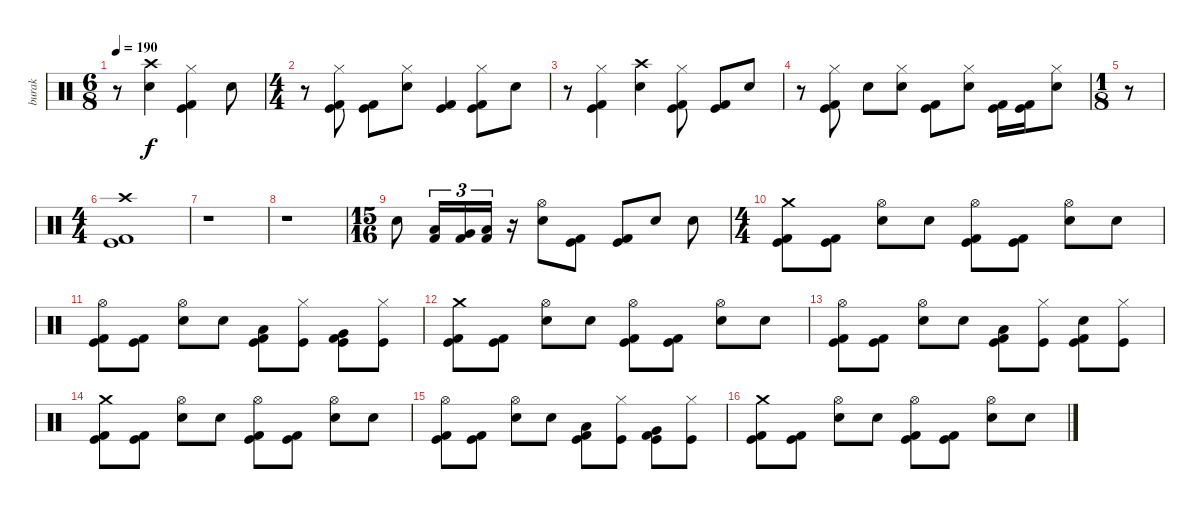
\track ("burak" "burak") {instrument percussion}
\staff {score}
\articulation defaults
\ts (6 8)
\tempo 190
\clef neutral
\ks c
r.8{dy f} ("Electric Snare (hit)" "Crash high (hit)").4 ("Hi-Hat (closed)" "Kick (hit)" "Kick (hit) 2").4 "Electric Snare (hit)".8 |
\ts (4 4)
r.8 ("Hi-Hat (closed)" "Kick (hit)" "Kick (hit) 2").8 ("Kick (hit)" "Kick (hit) 2").8 ("Electric Snare (hit)" "Hi-Hat (closed)").8 ("Kick (hit)" "Kick (hit) 2").4 ("Hi-Hat (closed)" "Kick (hit)" "Kick (hit) 2").8 "Electric Snare (hit)".8 |
r.8 ("Hi-Hat (closed)" "Kick (hit)" "Kick (hit) 2").4 ("Electric Snare (hit)" "Crash high (hit)").4 ("Hi-Hat (closed)" "Kick (hit)" "Kick (hit) 2").8 ("Kick (hit)" "Kick (hit) 2").8 "Electric Snare (hit)".8 |
r.8 ("Hi-Hat (closed)" "Kick (hit)" "Kick (hit) 2").8 "Electric Snare (hit)".8 ("Electric Snare (hit)" "Hi-Hat (closed)").8 ("Kick (hit)" "Kick (hit) 2").8 ("Electric Snare (hit)" "Hi-Hat (closed)").8 ("Kick (hit)" "Kick (hit) 2").16 ("Kick (hit)" "Kick (hit) 2").16 ("Hi-Hat (closed)" "Electric Snare (hit)").8 |
\ts (1 8)
r.8 |
\ts (4 4)
("Crash high (hit)" "Kick (hit)" "Kick (hit) 2").1 |
r.1 |
r.1 |
\ts (15 16)
"Electric Snare (hit)".8 ("Low Tom (hit)" "Kick (hit) 2").16{tu (3 2)} ("Very Low Tom (hit)" "Kick (hit) 2").16{tu (3 2)} ("Low Floor Tom (hit)" "Kick (hit) 2").16{tu (3 2)} r.16 ("Hi-Hat (open)" "Electric Snare (hit)").8 ("Kick (hit)" "Kick (hit) 2").8 ("Kick (hit)" "Kick (hit) 2").8 "Electric Snare (hit)".8 "Electric Snare (hit)".8 |
\ts (4 4)
("Crash medium (hit)" "Kick (hit)" "Kick (hit) 2").8 ("Kick (hit)" "Kick (hit) 2").8 ("Electric Snare (hit)" "Hi-Hat (open)").8 "Electric Snare (hit)".8 ("Hi-Hat (open)" "Kick (hit)" "Kick (hit) 2").8 ("Kick (hit)" "Kick (hit) 2").8 ("Electric Snare (hit)" "Hi-Hat (open)").8 "Electric Snare (hit)".8 |
("Hi-Hat (open)" "Kick (hit)" "Kick (hit) 2").8 ("Kick (hit)" "Kick (hit) 2").8 ("Electric Snare (hit)" "Hi-Hat (open)").8 "Electric Snare (hit)".8 ("Low Tom (hit)" "Kick (hit)" "Kick (hit) 2").8 ("Hi-Hat (closed)" "Kick (hit)").8 ("Very Low Tom (hit)" "Kick (hit)" "Kick (hit) 2").8 ("Hi-Hat (closed)" "Kick (hit)").8 |
("Crash medium (hit)" "Kick (hit)" "Kick (hit) 2").8 ("Kick (hit)" "Kick (hit) 2").8 ("Electric Snare (hit)" "Hi-Hat (open)").8 "Electric Snare (hit)".8 ("Hi-Hat (open)" "Kick (hit)" "Kick (hit) 2").8 ("Kick (hit)" "Kick (hit) 2").8 ("Electric Snare (hit)" "Hi-Hat (open)").8 "Electric Snare (hit)".8 |
("Hi-Hat (open)" "Kick (hit)" "Kick (hit) 2").8 ("Kick (hit)" "Kick (hit) 2").8 ("Electric Snare (hit)" "Hi-Hat (open)").8 "Electric Snare (hit)".8 ("Low Tom (hit)" "Kick (hit)" "Kick (hit) 2").8 ("Hi-Hat (closed)" "Kick (hit)").8 ("Electric Snare (hit)" "Kick (hit) 2" "Kick (hit)").8 ("Hi-Hat (closed)" "Kick (hit)").8 |
("Crash medium (hit)" "Kick (hit)" "Kick (hit) 2").8 ("Kick (hit)" "Kick (hit) 2").8 ("Electric Snare (hit)" "Hi-Hat (open)").8 "Electric Snare (hit)".8 ("Hi-Hat (open)" "Kick (hit)" "Kick (hit) 2").8 ("Kick (hit)" "Kick (hit) 2").8 ("Electric Snare (hit)" "Hi-Hat (open)").8 "Electric Snare (hit)".8 |
("Hi-Hat (open)" "Kick (hit)" "Kick (hit) 2").8 ("Kick (hit)" "Kick (hit) 2").8 ("Electric Snare (hit)" "Hi-Hat (open)").8 "Electric Snare (hit)".8 ("Low Tom (hit)" "Kick (hit)" "Kick (hit) 2").8 ("Hi-Hat (closed)" "Kick (hit)").8 ("Very Low Tom (hit)" "Kick (hit)" "Kick (hit) 2").8 ("Hi-Hat (closed)" "Kick (hit)").8 |
("Crash medium (hit)" "Kick (hit)" "Kick (hit) 2").8 ("Kick (hit)" "Kick (hit) 2").8 ("Electric Snare (hit)" "Hi-Hat (open)").8 "Electric Snare (hit)".8 ("Hi-Hat (open)" "Kick (hit)" "Kick (hit) 2").8 ("Kick (hit)" "Kick (hit) 2").8 ("Electric Snare (hit)" "Hi-Hat (open)").8 "Electric Snare (hit)".8
